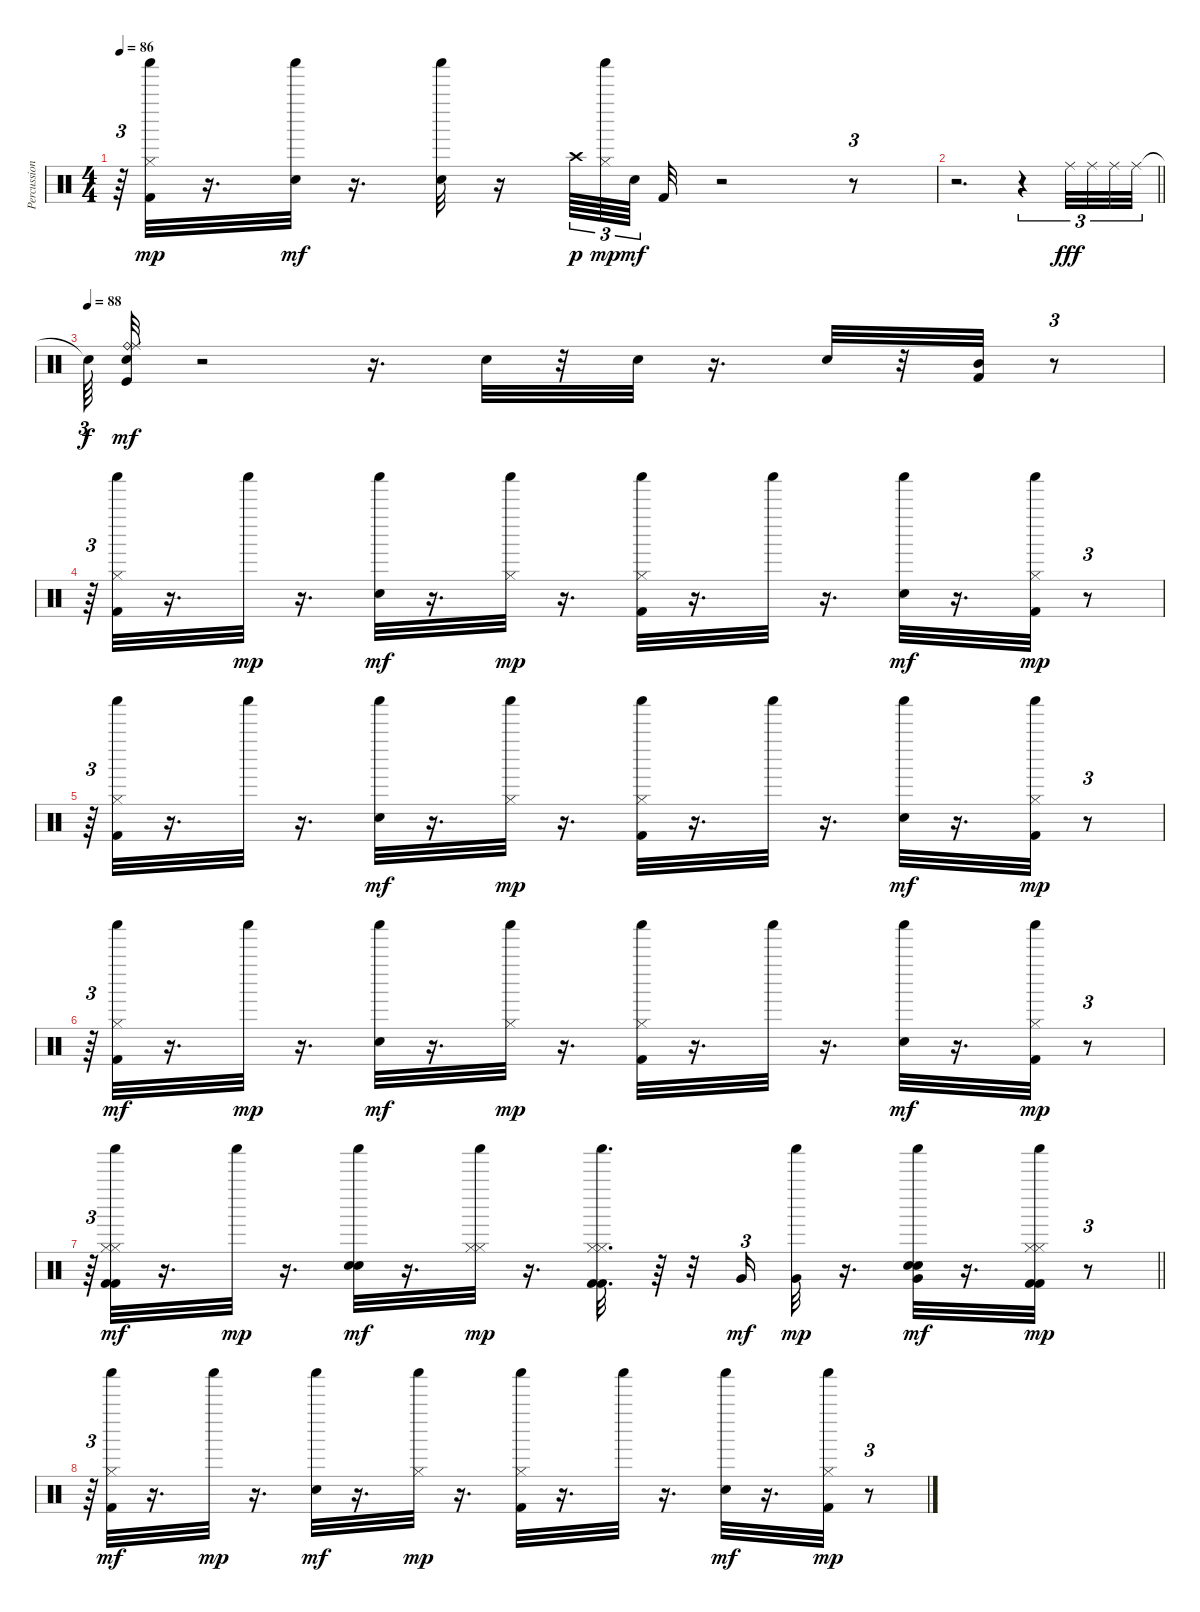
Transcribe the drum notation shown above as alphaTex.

\track ("Percussion" "Percussion") {instrument percussion}
\staff {score}
\articulation defaults
\ts (4 4)
\tempo 86
\clef neutral
\ks c
r.64{tu (3 2) dy mp} ("Kick (hit) 2" "Shaker (hit)" "Hi-Hat (closed)").32 r.16{d} ("Shaker (hit)" "Snare (hit) 2").32{dy mf} r.16{d} ("Shaker (hit)" "Snare (hit) 2").32 r.16 "Crash high (hit)".64{tu (3 2) dy p} ("Shaker (hit)" "Hi-Hat (closed)").64{tu (3 2) dy mp} "Snare (hit) 2".64{tu (3 2) dy mf beam splitsecondary} "Kick (hit) 2".32 r.2 r.8{tu (3 2)} |
\barLineRight lightlight
r.2{d} r.4{tu (3 2)} "Ride (middle)".32{tu (3 2) dy fff} "Ride (middle)".32{tu (3 2)} "Ride (middle)".32{tu (3 2)} "Ride (middle)".32{tu (3 2)} |
\tempo (88)
"Snare (hit)"{t}.64{tu (3 2) dy f} ("Snare (hit) 2" "Ride (bell)" "Ride (middle)" "Kick (hit)").32{dy mf} r.2 r.16{d} "Snare (hit) 2".32 r.32 "Snare (hit) 2".32 r.16{d} "Snare (hit) 2".32 r.32 ("Kick (hit) 2" "Mid Tom (hit)").32 r.8{tu (3 2)} |
r.64{tu (3 2)} ("Hi-Hat (closed)" "Shaker (hit)" "Kick (hit) 2").32 r.16{d} "Shaker (hit)".32{dy mp} r.16{d} ("Shaker (hit)" "Snare (hit) 2").32{dy mf} r.16{d} ("Shaker (hit)" "Hi-Hat (closed)").32{dy mp} r.16{d} ("Kick (hit) 2" "Shaker (hit)" "Hi-Hat (closed)").32 r.16{d} "Shaker (hit)".32 r.16{d} ("Shaker (hit)" "Snare (hit) 2").32{dy mf} r.16{d} ("Kick (hit) 2" "Shaker (hit)" "Hi-Hat (closed)").32{dy mp} r.8{tu (3 2)} |
r.64{tu (3 2)} ("Kick (hit) 2" "Shaker (hit)" "Hi-Hat (closed)").32 r.16{d} "Shaker (hit)".32 r.16{d} ("Shaker (hit)" "Snare (hit) 2").32{dy mf} r.16{d} ("Shaker (hit)" "Hi-Hat (closed)").32{dy mp} r.16{d} ("Kick (hit) 2" "Shaker (hit)" "Hi-Hat (closed)").32 r.16{d} "Shaker (hit)".32 r.16{d} ("Shaker (hit)" "Snare (hit) 2").32{dy mf} r.16{d} ("Kick (hit) 2" "Shaker (hit)" "Hi-Hat (closed)").32{dy mp} r.8{tu (3 2)} |
r.64{tu (3 2)} ("Hi-Hat (closed)" "Shaker (hit)" "Kick (hit) 2").32{dy mf} r.16{d} "Shaker (hit)".32{dy mp} r.16{d} ("Shaker (hit)" "Snare (hit) 2").32{dy mf} r.16{d} ("Shaker (hit)" "Hi-Hat (closed)").32{dy mp} r.16{d} ("Kick (hit) 2" "Shaker (hit)" "Hi-Hat (closed)").32 r.16{d} "Shaker (hit)".32 r.16{d} ("Shaker (hit)" "Snare (hit) 2").32{dy mf} r.16{d} ("Kick (hit) 2" "Shaker (hit)" "Hi-Hat (closed)").32{dy mp} r.8{tu (3 2)} |
\barLineRight lightlight
r.64{tu (3 2)} ("Kick (hit) 2" "Shaker (hit)" "Hi-Hat (closed)" "Hi-Hat (closed)" "Kick (hit) 2").32{dy mf} r.16{d} "Shaker (hit)".32{dy mp} r.16{d} ("Shaker (hit)" "Snare (hit) 2" "Snare (hit) 2").32{dy mf} r.16{d} ("Shaker (hit)" "Hi-Hat (closed)" "Hi-Hat (closed)").32{dy mp} r.16{d} ("Kick (hit) 2" "Shaker (hit)" "Hi-Hat (closed)" "Kick (hit) 2" "Hi-Hat (closed)").32{d} r.64 r.32 "Very Low Tom (hit)".16{tu (3 2) dy mf} ("Shaker (hit)" "Very Low Tom (hit)").32{dy mp} r.16{d} ("Shaker (hit)" "Snare (hit) 2" "Snare (hit) 2" "Very Low Tom (hit)").32{dy mf} r.16{d} ("Kick (hit) 2" "Shaker (hit)" "Hi-Hat (closed)" "Kick (hit) 2" "Hi-Hat (closed)").32{dy mp} r.8{tu (3 2)} |
r.64{tu (3 2)} ("Hi-Hat (closed)" "Shaker (hit)" "Kick (hit) 2").32{dy mf} r.16{d} "Shaker (hit)".32{dy mp} r.16{d} ("Shaker (hit)" "Snare (hit) 2").32{dy mf} r.16{d} ("Shaker (hit)" "Hi-Hat (closed)").32{dy mp} r.16{d} ("Kick (hit) 2" "Shaker (hit)" "Hi-Hat (closed)").32 r.16{d} "Shaker (hit)".32 r.16{d} ("Shaker (hit)" "Snare (hit) 2").32{dy mf} r.16{d} ("Kick (hit) 2" "Shaker (hit)" "Hi-Hat (closed)").32{dy mp} r.8{tu (3 2)}
